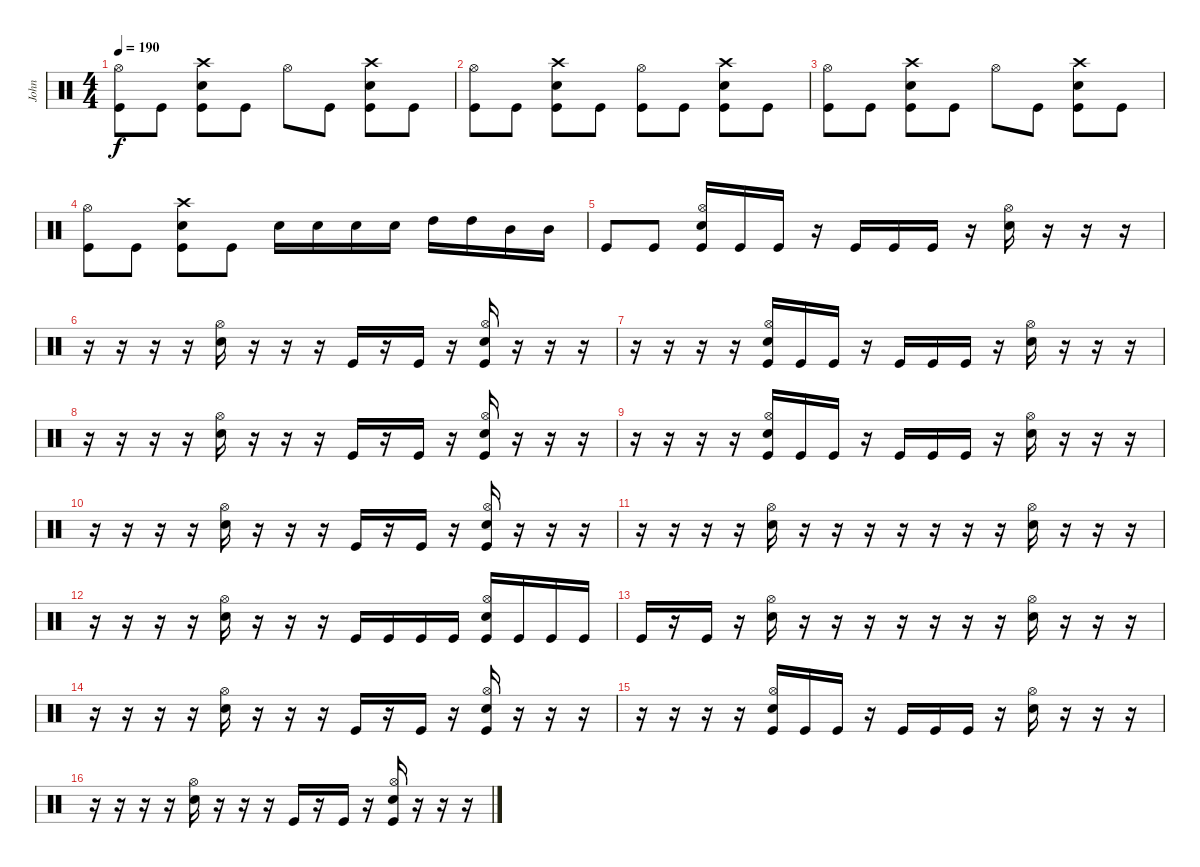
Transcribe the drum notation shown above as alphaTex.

\track ("John" "John") {instrument percussion}
\staff {score}
\articulation defaults
\ts (4 4)
\tempo 190
\clef neutral
\ks c
("Kick (hit)" "Hi-Hat (open)").8{dy f} "Kick (hit)".8 ("Kick (hit)" "Snare (hit) 2" "Crash high (hit)").8 "Kick (hit)".8 "Hi-Hat (open)".8 "Kick (hit)".8 ("Kick (hit)" "Snare (hit) 2" "Crash high (hit)").8 "Kick (hit)".8 |
("Kick (hit)" "Hi-Hat (open)").8 "Kick (hit)".8 ("Kick (hit)" "Snare (hit) 2" "Crash high (hit)").8 "Kick (hit)".8 ("Kick (hit)" "Hi-Hat (open)").8 "Kick (hit)".8 ("Kick (hit)" "Snare (hit) 2" "Crash high (hit)").8 "Kick (hit)".8 |
("Kick (hit)" "Hi-Hat (open)").8 "Kick (hit)".8 ("Kick (hit)" "Snare (hit) 2" "Crash high (hit)").8 "Kick (hit)".8 "Hi-Hat (open)".8 "Kick (hit)".8 ("Kick (hit)" "Snare (hit) 2" "Crash high (hit)").8 "Kick (hit)".8 |
("Kick (hit)" "Hi-Hat (open)").8 "Kick (hit)".8 ("Kick (hit)" "Snare (hit) 2" "Crash high (hit)").8 "Kick (hit)".8 "Snare (hit) 2".16 "Snare (hit) 2".16 "Snare (hit) 2".16 "Snare (hit) 2".16 "High Tom (hit)".16 "High Tom (hit)".16 "Mid Tom (hit)".16 "Mid Tom (hit)".16 |
"Kick (hit)".8 "Kick (hit)".8 ("Kick (hit)" "Snare (hit) 2" "Hi-Hat (open)").16 "Kick (hit)".16 "Kick (hit)".16 r.16 "Kick (hit)".16 "Kick (hit)".16 "Kick (hit)".16 r.16 ("Snare (hit) 2" "Hi-Hat (open)").16 r.16 r.16 r.16 |
r.16 r.16 r.16 r.16 ("Snare (hit) 2" "Hi-Hat (open)").16 r.16 r.16 r.16 "Kick (hit)".16 r.16 "Kick (hit)".16 r.16 ("Kick (hit)" "Snare (hit) 2" "Hi-Hat (open)").16 r.16 r.16 r.16 |
r.16 r.16 r.16 r.16 ("Kick (hit)" "Snare (hit) 2" "Hi-Hat (open)").16 "Kick (hit)".16 "Kick (hit)".16 r.16 "Kick (hit)".16 "Kick (hit)".16 "Kick (hit)".16 r.16 ("Snare (hit) 2" "Hi-Hat (open)").16 r.16 r.16 r.16 |
r.16 r.16 r.16 r.16 ("Snare (hit) 2" "Hi-Hat (open)").16 r.16 r.16 r.16 "Kick (hit)".16 r.16 "Kick (hit)".16 r.16 ("Kick (hit)" "Snare (hit) 2" "Hi-Hat (open)").16 r.16 r.16 r.16 |
r.16 r.16 r.16 r.16 ("Kick (hit)" "Snare (hit) 2" "Hi-Hat (open)").16 "Kick (hit)".16 "Kick (hit)".16 r.16 "Kick (hit)".16 "Kick (hit)".16 "Kick (hit)".16 r.16 ("Snare (hit) 2" "Hi-Hat (open)").16 r.16 r.16 r.16 |
r.16 r.16 r.16 r.16 ("Snare (hit) 2" "Hi-Hat (open)").16 r.16 r.16 r.16 "Kick (hit)".16 r.16 "Kick (hit)".16 r.16 ("Kick (hit)" "Snare (hit) 2" "Hi-Hat (open)").16 r.16 r.16 r.16 |
r.16 r.16 r.16 r.16 ("Snare (hit) 2" "Hi-Hat (open)").16 r.16 r.16 r.16 r.16 r.16 r.16 r.16 ("Snare (hit) 2" "Hi-Hat (open)").16 r.16 r.16 r.16 |
r.16 r.16 r.16 r.16 ("Snare (hit) 2" "Hi-Hat (open)").16 r.16 r.16 r.16 "Kick (hit)".16 "Kick (hit)".16 "Kick (hit)".16 "Kick (hit)".16 ("Kick (hit)" "Snare (hit) 2" "Hi-Hat (open)").16 "Kick (hit)".16 "Kick (hit)".16 "Kick (hit)".16 |
"Kick (hit)".16 r.16 "Kick (hit)".16 r.16 ("Snare (hit) 2" "Hi-Hat (open)").16 r.16 r.16 r.16 r.16 r.16 r.16 r.16 ("Snare (hit) 2" "Hi-Hat (open)").16 r.16 r.16 r.16 |
r.16 r.16 r.16 r.16 ("Snare (hit) 2" "Hi-Hat (open)").16 r.16 r.16 r.16 "Kick (hit)".16 r.16 "Kick (hit)".16 r.16 ("Kick (hit)" "Snare (hit) 2" "Hi-Hat (open)").16 r.16 r.16 r.16 |
r.16 r.16 r.16 r.16 ("Kick (hit)" "Snare (hit) 2" "Hi-Hat (open)").16 "Kick (hit)".16 "Kick (hit)".16 r.16 "Kick (hit)".16 "Kick (hit)".16 "Kick (hit)".16 r.16 ("Snare (hit) 2" "Hi-Hat (open)").16 r.16 r.16 r.16 |
r.16 r.16 r.16 r.16 ("Snare (hit) 2" "Hi-Hat (open)").16 r.16 r.16 r.16 "Kick (hit)".16 r.16 "Kick (hit)".16 r.16 ("Kick (hit)" "Snare (hit) 2" "Hi-Hat (open)").16 r.16 r.16 r.16
